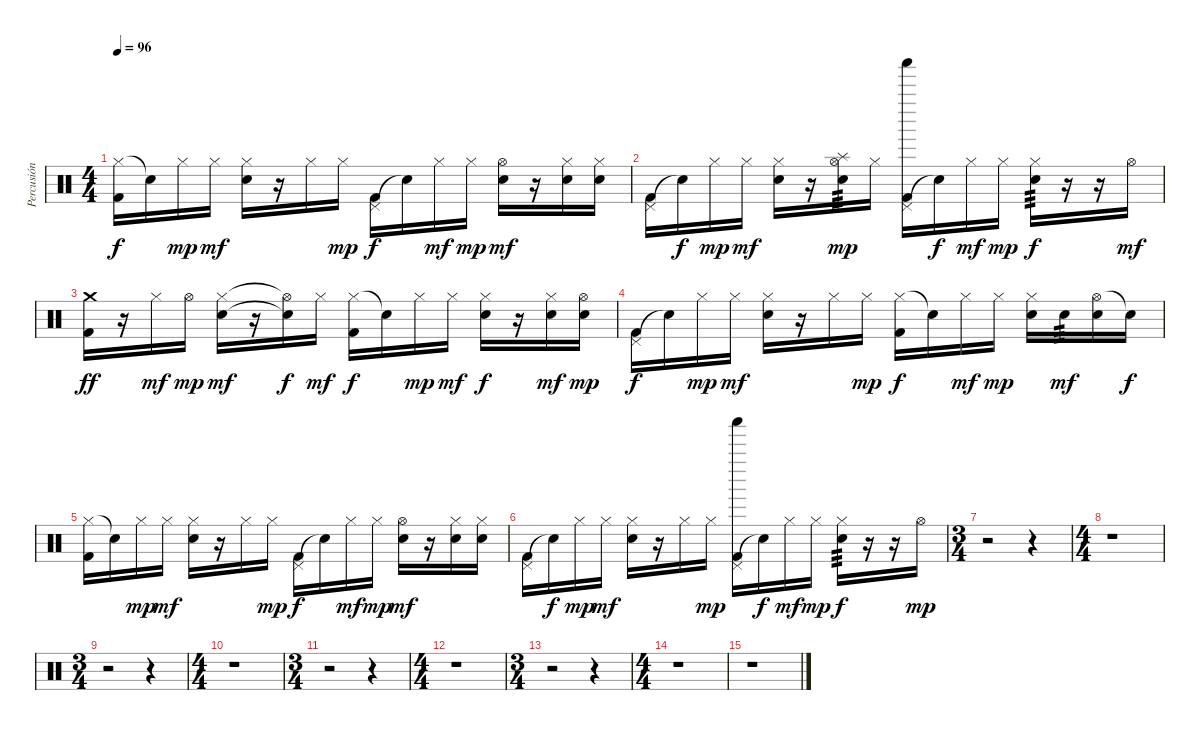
\track ("Percusión" "Percusión") {instrument percussion}
\staff {score}
\articulation defaults
\ts (4 4)
\tempo 96
\clef neutral
\ks c
("Hi-Hat (closed)" "Kick (hit) 2").16{dy f} "Snare (hit)"{t}.16 "Hi-Hat (closed)".16{dy mp} "Hi-Hat (closed)".16{dy mf} ("Hi-Hat (closed)" "Snare (hit) 2").16 r.16 "Hi-Hat (closed)".16 "Hi-Hat (closed)".16{dy mp} ("Pedal Hi-Hat (hit)" "Kick (hit) 2").16{dy f} "Snare (hit)"{t}.16 "Hi-Hat (closed)".16{dy mf} "Hi-Hat (closed)".16{dy mp} ("Hi-Hat (open)" "Snare (hit) 2").16{dy mf} r.16 ("Hi-Hat (closed)" "Snare (hit) 2").16 ("Hi-Hat (closed)" "Snare (hit) 2").16 |
("Pedal Hi-Hat (hit)" "Kick (hit) 2").16 "Snare (hit)"{t}.16{dy f} "Hi-Hat (closed)".16{dy mp} "Hi-Hat (closed)".16{dy mf} ("Hi-Hat (closed)" "Snare (hit) 2").16 r.16 ("Hi-Hat (open)" "Snare (hit) 2" "Splash (hit)").16{tp 3 dy mp} "Hi-Hat (closed)".16 ("Pedal Hi-Hat (hit)" "Shaker (hit)" "Kick (hit) 2").16 "Snare (hit)"{t}.16{dy f} "Hi-Hat (closed)".16{dy mf} "Hi-Hat (closed)".16{dy mp} ("Hi-Hat (closed)" "Snare (hit) 2").16{tp 3 dy f} r.16 r.16 "Hi-Hat (open)".16{dy mf} |
("Crash medium (hit)" "Kick (hit) 2").16{dy ff} r.16 "Hi-Hat (closed)".16{dy mf} "Hi-Hat (open)".16{dy mp} ("Hi-Hat (closed)" "Snare (hit) 2").16{dy mf} r.16 ("Hi-Hat (open)"{t} "Snare (hit)"{t}).16{dy f} "Hi-Hat (closed)".16{dy mf} ("Hi-Hat (closed)" "Kick (hit) 2").16{dy f} "Snare (hit)"{t}.16 "Hi-Hat (closed)".16{dy mp} "Hi-Hat (closed)".16{dy mf} ("Hi-Hat (closed)" "Snare (hit) 2").16{dy f} r.16 ("Hi-Hat (closed)" "Snare (hit) 2").16{dy mf} ("Hi-Hat (open)" "Snare (hit) 2").16{dy mp} |
("Pedal Hi-Hat (hit)" "Kick (hit) 2").16{dy f} "Snare (hit)"{t}.16 "Hi-Hat (closed)".16{dy mp} "Hi-Hat (closed)".16{dy mf} ("Hi-Hat (closed)" "Snare (hit) 2").16 r.16 "Hi-Hat (closed)".16 "Hi-Hat (closed)".16{dy mp} ("Hi-Hat (closed)" "Kick (hit) 2").16{dy f} "Snare (hit)"{t}.16 "Hi-Hat (closed)".16{dy mf} "Hi-Hat (closed)".16{dy mp} ("Hi-Hat (closed)" "Snare (hit) 2").16 "Snare (hit) 2".16{tp 3 dy mf} ("Hi-Hat (open)" "Snare (hit) 2").16 "Snare (hit)"{t}.16{dy f} |
("Hi-Hat (closed)" "Kick (hit) 2").16 "Snare (hit)"{t}.16 "Hi-Hat (closed)".16{dy mp} "Hi-Hat (closed)".16{dy mf} ("Hi-Hat (closed)" "Snare (hit) 2").16 r.16 "Hi-Hat (closed)".16 "Hi-Hat (closed)".16{dy mp} ("Pedal Hi-Hat (hit)" "Kick (hit) 2").16{dy f} "Snare (hit)"{t}.16 "Hi-Hat (closed)".16{dy mf} "Hi-Hat (closed)".16{dy mp} ("Hi-Hat (open)" "Snare (hit) 2").16{dy mf} r.16 ("Hi-Hat (closed)" "Snare (hit) 2").16 ("Hi-Hat (closed)" "Snare (hit) 2").16 |
("Pedal Hi-Hat (hit)" "Kick (hit) 2").16 "Snare (hit)"{t}.16{dy f} "Hi-Hat (closed)".16{dy mp} "Hi-Hat (closed)".16{dy mf} ("Hi-Hat (closed)" "Snare (hit) 2").16 r.16 "Hi-Hat (closed)".16 "Hi-Hat (closed)".16{dy mp} ("Pedal Hi-Hat (hit)" "Shaker (hit)" "Kick (hit) 2").16 "Snare (hit)"{t}.16{dy f} "Hi-Hat (closed)".16{dy mf} "Hi-Hat (closed)".16{dy mp} ("Hi-Hat (closed)" "Snare (hit) 2").16{tp 3 dy f} r.16 r.16 "Hi-Hat (open)".16{dy mp} |
\ts (3 4)
r.2 r.4 |
\ts (4 4)
r.1 |
\ts (3 4)
r.2 r.4 |
\ts (4 4)
r.1 |
\ts (3 4)
r.2 r.4 |
\ts (4 4)
r.1 |
\ts (3 4)
r.2 r.4 |
\ts (4 4)
r.1 |
r.1
